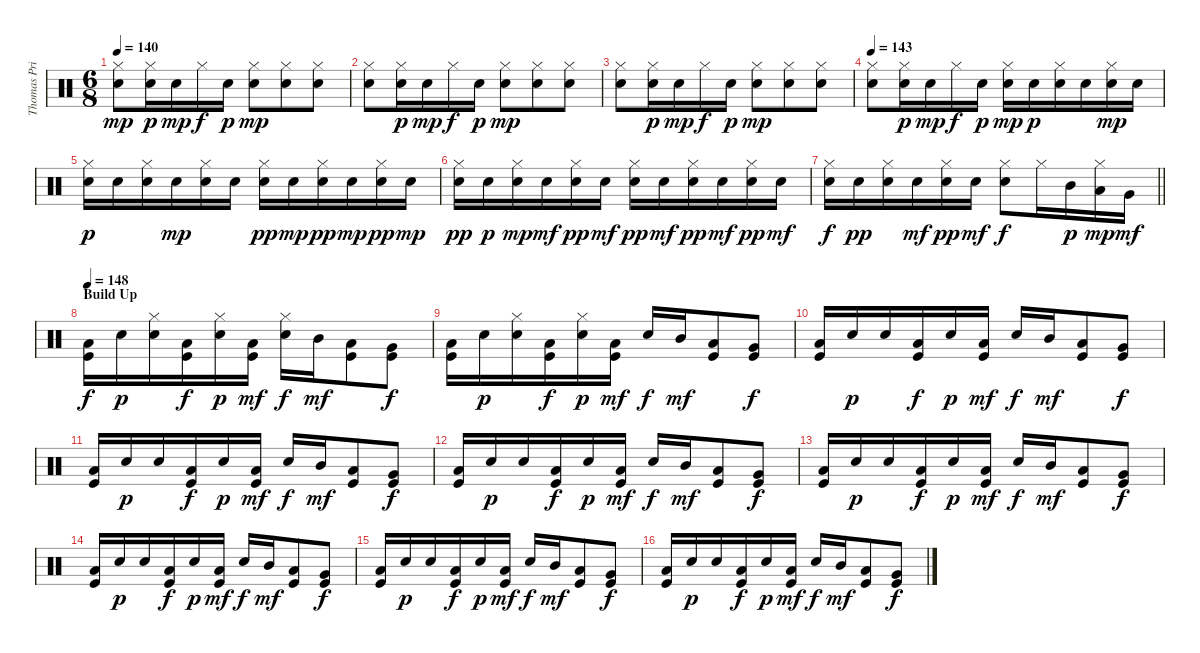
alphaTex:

\track ("Thomas Pridgen" "Thomas Pri") {instrument percussion}
\staff {score}
\articulation defaults
\ts (6 8)
\tempo 140
\clef neutral
\ks c
("Hi-Hat (closed)" "Snare (hit) 2").8{dy mp} ("Hi-Hat (closed)" "Snare (hit) 2").16{dy p} "Snare (hit) 2".16{dy mp} "Hi-Hat (closed)".16{dy f} "Snare (hit) 2".16{dy p} ("Hi-Hat (closed)" "Snare (hit) 2").8{dy mp} ("Hi-Hat (closed)" "Snare (hit) 2").8 ("Hi-Hat (closed)" "Snare (hit) 2").8 |
("Hi-Hat (closed)" "Snare (hit) 2").8 ("Hi-Hat (closed)" "Snare (hit) 2").16{dy p} "Snare (hit) 2".16{dy mp} "Hi-Hat (closed)".16{dy f} "Snare (hit) 2".16{dy p} ("Hi-Hat (closed)" "Snare (hit) 2").8{dy mp} ("Hi-Hat (closed)" "Snare (hit) 2").8 ("Hi-Hat (closed)" "Snare (hit) 2").8 |
("Hi-Hat (closed)" "Snare (hit) 2").8 ("Hi-Hat (closed)" "Snare (hit) 2").16{dy p} "Snare (hit) 2".16{dy mp} "Hi-Hat (closed)".16{dy f} "Snare (hit) 2".16{dy p} ("Hi-Hat (closed)" "Snare (hit) 2").8{dy mp} ("Hi-Hat (closed)" "Snare (hit) 2").8 ("Hi-Hat (closed)" "Snare (hit) 2").8 |
\tempo 143
("Hi-Hat (closed)" "Snare (hit) 2").8 ("Hi-Hat (closed)" "Snare (hit) 2").16{dy p} "Snare (hit) 2".16{dy mp} "Hi-Hat (closed)".16{dy f} "Snare (hit) 2".16{dy p} ("Hi-Hat (closed)" "Snare (hit) 2").16{dy mp} "Snare (hit) 2".16{dy p} ("Hi-Hat (closed)" "Snare (hit) 2").16 "Snare (hit) 2".16 ("Hi-Hat (closed)" "Snare (hit) 2").16{dy mp} "Snare (hit) 2".16 |
("Hi-Hat (closed)" "Snare (hit) 2").16{dy p} "Snare (hit) 2".16 ("Hi-Hat (closed)" "Snare (hit) 2").16 "Snare (hit) 2".16{dy mp} ("Hi-Hat (closed)" "Snare (hit) 2").16 "Snare (hit) 2".16 ("Hi-Hat (closed)" "Snare (hit) 2").16{dy pp} "Snare (hit) 2".16{dy mp} ("Hi-Hat (closed)" "Snare (hit) 2").16{dy pp} "Snare (hit) 2".16{dy mp} ("Hi-Hat (closed)" "Snare (hit) 2").16{dy pp} "Snare (hit) 2".16{dy mp} |
("Hi-Hat (closed)" "Snare (hit) 2").16{dy pp} "Snare (hit) 2".16{dy p} ("Hi-Hat (closed)" "Snare (hit) 2").16{dy mp} "Snare (hit) 2".16{dy mf} ("Hi-Hat (closed)" "Snare (hit) 2").16{dy pp} "Snare (hit) 2".16{dy mf} ("Hi-Hat (closed)" "Snare (hit) 2").16{dy pp} "Snare (hit) 2".16{dy mf} ("Hi-Hat (closed)" "Snare (hit) 2").16{dy pp} "Snare (hit) 2".16{dy mf} ("Hi-Hat (closed)" "Snare (hit) 2").16{dy pp} "Snare (hit) 2".16{dy mf} |
\barLineRight lightlight
("Hi-Hat (closed)" "Snare (hit) 2").16{dy f} "Snare (hit) 2".16{dy pp} ("Hi-Hat (closed)" "Snare (hit) 2").16 "Snare (hit) 2".16{dy mf} ("Hi-Hat (closed)" "Snare (hit) 2").16{dy pp} "Snare (hit) 2".16{dy mf} ("Hi-Hat (closed)" "Snare (hit) 2").8{dy f} "Hi-Hat (closed)".16 "Mid Tom (hit)".16{dy p} ("Hi-Hat (closed)" "Low Tom (hit)").16{dy mp} "Very Low Tom (hit)".16{dy mf} |
\section ("" "Build Up")
\tempo 148
("Low Floor Tom (hit)" "Kick (hit)").16{dy f} "Snare (hit) 2".16{dy p} ("Hi-Hat (closed)" "Snare (hit) 2").16 ("Low Floor Tom (hit)" "Kick (hit)").16{dy f} ("Hi-Hat (closed)" "Snare (hit) 2").16{dy p} ("Low Floor Tom (hit)" "Kick (hit)").16{dy mf} ("Hi-Hat (closed)" "Snare (hit) 2").16{dy f} "Mid Tom (hit)".16{dy mf} ("Low Tom (hit)" "Kick (hit)").8 ("Very Low Tom (hit)" "Kick (hit)").8{dy f} |
("Low Floor Tom (hit)" "Kick (hit)").16 "Snare (hit) 2".16{dy p} ("Hi-Hat (closed)" "Snare (hit) 2").16 ("Low Floor Tom (hit)" "Kick (hit)").16{dy f} ("Hi-Hat (closed)" "Snare (hit) 2").16{dy p} ("Low Floor Tom (hit)" "Kick (hit)").16{dy mf} "Snare (hit) 2".16{dy f} "Mid Tom (hit)".16{dy mf} ("Low Tom (hit)" "Kick (hit)").8 ("Very Low Tom (hit)" "Kick (hit)").8{dy f} |
("Low Floor Tom (hit)" "Kick (hit)").16 "Snare (hit) 2".16{dy p} "Snare (hit) 2".16 ("Low Floor Tom (hit)" "Kick (hit)").16{dy f} "Snare (hit) 2".16{dy p} ("Low Floor Tom (hit)" "Kick (hit)").16{dy mf} "Snare (hit) 2".16{dy f} "Mid Tom (hit)".16{dy mf} ("Low Tom (hit)" "Kick (hit)").8 ("Very Low Tom (hit)" "Kick (hit)").8{dy f} |
("Low Floor Tom (hit)" "Kick (hit)").16 "Snare (hit) 2".16{dy p} "Snare (hit) 2".16 ("Low Floor Tom (hit)" "Kick (hit)").16{dy f} "Snare (hit) 2".16{dy p} ("Low Floor Tom (hit)" "Kick (hit)").16{dy mf} "Snare (hit) 2".16{dy f} "Mid Tom (hit)".16{dy mf} ("Low Tom (hit)" "Kick (hit)").8 ("Very Low Tom (hit)" "Kick (hit)").8{dy f} |
("Low Floor Tom (hit)" "Kick (hit)").16 "Snare (hit) 2".16{dy p} "Snare (hit) 2".16 ("Low Floor Tom (hit)" "Kick (hit)").16{dy f} "Snare (hit) 2".16{dy p} ("Low Floor Tom (hit)" "Kick (hit)").16{dy mf} "Snare (hit) 2".16{dy f} "Mid Tom (hit)".16{dy mf} ("Low Tom (hit)" "Kick (hit)").8 ("Very Low Tom (hit)" "Kick (hit)").8{dy f} |
("Low Floor Tom (hit)" "Kick (hit)").16 "Snare (hit) 2".16{dy p} "Snare (hit) 2".16 ("Low Floor Tom (hit)" "Kick (hit)").16{dy f} "Snare (hit) 2".16{dy p} ("Low Floor Tom (hit)" "Kick (hit)").16{dy mf} "Snare (hit) 2".16{dy f} "Mid Tom (hit)".16{dy mf} ("Low Tom (hit)" "Kick (hit)").8 ("Very Low Tom (hit)" "Kick (hit)").8{dy f} |
("Low Floor Tom (hit)" "Kick (hit)").16 "Snare (hit) 2".16{dy p} "Snare (hit) 2".16 ("Low Floor Tom (hit)" "Kick (hit)").16{dy f} "Snare (hit) 2".16{dy p} ("Low Floor Tom (hit)" "Kick (hit)").16{dy mf} "Snare (hit) 2".16{dy f} "Mid Tom (hit)".16{dy mf} ("Low Tom (hit)" "Kick (hit)").8 ("Very Low Tom (hit)" "Kick (hit)").8{dy f} |
("Low Floor Tom (hit)" "Kick (hit)").16 "Snare (hit) 2".16{dy p} "Snare (hit) 2".16 ("Low Floor Tom (hit)" "Kick (hit)").16{dy f} "Snare (hit) 2".16{dy p} ("Low Floor Tom (hit)" "Kick (hit)").16{dy mf} "Snare (hit) 2".16{dy f} "Mid Tom (hit)".16{dy mf} ("Low Tom (hit)" "Kick (hit)").8 ("Very Low Tom (hit)" "Kick (hit)").8{dy f} |
("Low Floor Tom (hit)" "Kick (hit)").16 "Snare (hit) 2".16{dy p} "Snare (hit) 2".16 ("Low Floor Tom (hit)" "Kick (hit)").16{dy f} "Snare (hit) 2".16{dy p} ("Low Floor Tom (hit)" "Kick (hit)").16{dy mf} "Snare (hit) 2".16{dy f} "Mid Tom (hit)".16{dy mf} ("Low Tom (hit)" "Kick (hit)").8 ("Very Low Tom (hit)" "Kick (hit)").8{dy f}
